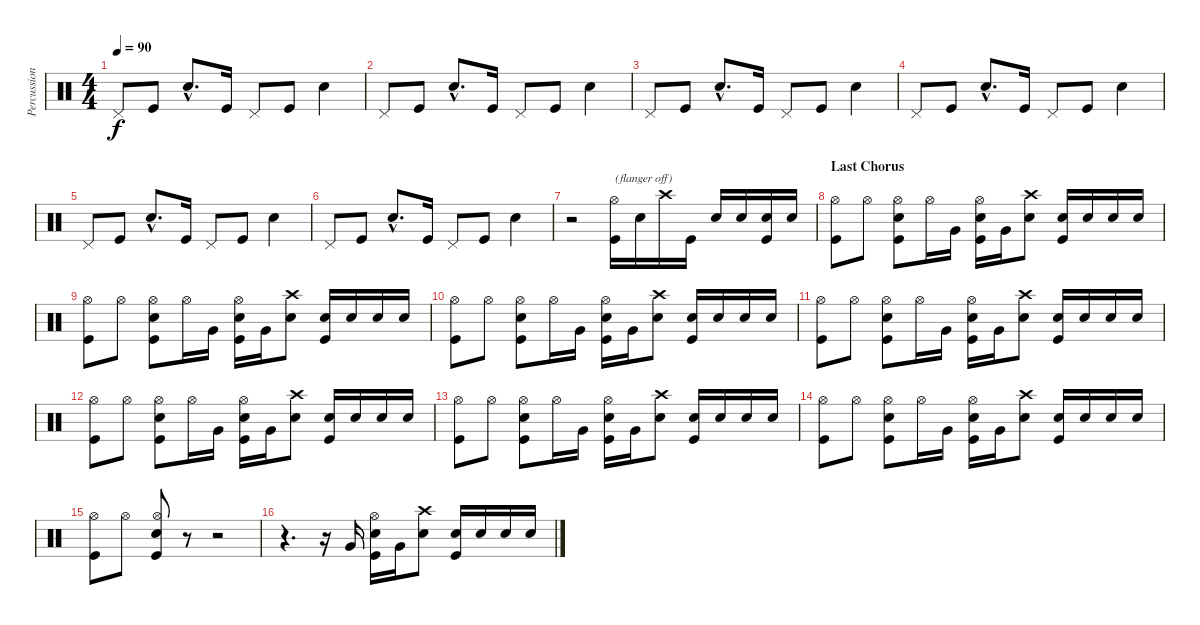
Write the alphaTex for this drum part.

\track ("Percussion" "Percussion") {instrument percussion}
\staff {score}
\articulation defaults
\ts (4 4)
\tempo 90
\clef neutral
\ks c "Pedal Hi-Hat (hit)".8{dy f} "Kick (hit)".8 "Electric Snare (hit)"{hac}.8{d} "Kick (hit)".16 "Pedal Hi-Hat (hit)".8 "Kick (hit)".8 "Electric Snare (hit)".4
|
"Pedal Hi-Hat (hit)".8 "Kick (hit)".8 "Electric Snare (hit)"{hac}.8{d} "Kick (hit)".16 "Pedal Hi-Hat (hit)".8 "Kick (hit)".8 "Electric Snare (hit)".4 |
"Pedal Hi-Hat (hit)".8 "Kick (hit)".8 "Electric Snare (hit)"{hac}.8{d} "Kick (hit)".16 "Pedal Hi-Hat (hit)".8 "Kick (hit)".8 "Electric Snare (hit)".4 |
"Pedal Hi-Hat (hit)".8 "Kick (hit)".8 "Electric Snare (hit)"{hac}.8{d} "Kick (hit)".16 "Pedal Hi-Hat (hit)".8 "Kick (hit)".8 "Electric Snare (hit)".4 |
"Pedal Hi-Hat (hit)".8 "Kick (hit)".8 "Electric Snare (hit)"{hac}.8{d} "Kick (hit)".16 "Pedal Hi-Hat (hit)".8 "Kick (hit)".8 "Electric Snare (hit)".4 |
"Pedal Hi-Hat (hit)".8 "Kick (hit)".8 "Electric Snare (hit)"{hac}.8{d} "Kick (hit)".16 "Pedal Hi-Hat (hit)".8 "Kick (hit)".8 "Electric Snare (hit)".4 |
r.2 ("Hi-Hat (open)" "Kick (hit)").16{txt "(flanger off)"} "Snare (hit) 2".16 "Crash high (hit)".16 "Kick (hit)".16 "Snare (hit) 2".16 "Snare (hit) 2".16 ("Snare (hit) 2" "Kick (hit)").16 "Snare (hit) 2".16 |
\section ("" "Last Chorus")
("Hi-Hat (open)" "Kick (hit)").8 "Hi-Hat (open)".8 ("Hi-Hat (open)" "Snare (hit) 2" "Kick (hit)").8 "Hi-Hat (open)".16 "Very Low Tom (hit)".16 ("Hi-Hat (open)" "Snare (hit) 2" "Kick (hit)").16 "Very Low Tom (hit)".16 ("Crash high (hit)" "Snare (hit) 2").8 ("Snare (hit) 2" "Kick (hit)").16 "Snare (hit) 2".16 "Snare (hit) 2".16 "Snare (hit) 2".16 |
("Hi-Hat (open)" "Kick (hit)").8 "Hi-Hat (open)".8 ("Hi-Hat (open)" "Snare (hit) 2" "Kick (hit)").8 "Hi-Hat (open)".16 "Very Low Tom (hit)".16 ("Hi-Hat (open)" "Snare (hit) 2" "Kick (hit)").16 "Very Low Tom (hit)".16 ("Crash high (hit)" "Snare (hit) 2").8 ("Snare (hit) 2" "Kick (hit)").16 "Snare (hit) 2".16 "Snare (hit) 2".16 "Snare (hit) 2".16 |
("Hi-Hat (open)" "Kick (hit)").8 "Hi-Hat (open)".8 ("Hi-Hat (open)" "Snare (hit) 2" "Kick (hit)").8 "Hi-Hat (open)".16 "Very Low Tom (hit)".16 ("Hi-Hat (open)" "Snare (hit) 2" "Kick (hit)").16 "Very Low Tom (hit)".16 ("Crash high (hit)" "Snare (hit) 2").8 ("Snare (hit) 2" "Kick (hit)").16 "Snare (hit) 2".16 "Snare (hit) 2".16 "Snare (hit) 2".16 |
("Hi-Hat (open)" "Kick (hit)").8 "Hi-Hat (open)".8 ("Hi-Hat (open)" "Snare (hit) 2" "Kick (hit)").8 "Hi-Hat (open)".16 "Very Low Tom (hit)".16 ("Hi-Hat (open)" "Snare (hit) 2" "Kick (hit)").16 "Very Low Tom (hit)".16 ("Crash high (hit)" "Snare (hit) 2").8 ("Snare (hit) 2" "Kick (hit)").16 "Snare (hit) 2".16 "Snare (hit) 2".16 "Snare (hit) 2".16 |
("Hi-Hat (open)" "Kick (hit)").8 "Hi-Hat (open)".8 ("Hi-Hat (open)" "Snare (hit) 2" "Kick (hit)").8 "Hi-Hat (open)".16 "Very Low Tom (hit)".16 ("Hi-Hat (open)" "Snare (hit) 2" "Kick (hit)").16 "Very Low Tom (hit)".16 ("Crash high (hit)" "Snare (hit) 2").8 ("Snare (hit) 2" "Kick (hit)").16 "Snare (hit) 2".16 "Snare (hit) 2".16 "Snare (hit) 2".16 |
("Hi-Hat (open)" "Kick (hit)").8 "Hi-Hat (open)".8 ("Hi-Hat (open)" "Snare (hit) 2" "Kick (hit)").8 "Hi-Hat (open)".16 "Very Low Tom (hit)".16 ("Hi-Hat (open)" "Snare (hit) 2" "Kick (hit)").16 "Very Low Tom (hit)".16 ("Crash high (hit)" "Snare (hit) 2").8 ("Snare (hit) 2" "Kick (hit)").16 "Snare (hit) 2".16 "Snare (hit) 2".16 "Snare (hit) 2".16 |
("Hi-Hat (open)" "Kick (hit)").8 "Hi-Hat (open)".8 ("Hi-Hat (open)" "Snare (hit) 2" "Kick (hit)").8 "Hi-Hat (open)".16 "Very Low Tom (hit)".16 ("Hi-Hat (open)" "Snare (hit) 2" "Kick (hit)").16 "Very Low Tom (hit)".16 ("Crash high (hit)" "Snare (hit) 2").8 ("Snare (hit) 2" "Kick (hit)").16 "Snare (hit) 2".16 "Snare (hit) 2".16 "Snare (hit) 2".16 |
("Hi-Hat (open)" "Kick (hit)").8 "Hi-Hat (open)".8 ("Hi-Hat (open)" "Snare (hit) 2" "Kick (hit)").8 r.8 r.2 |
r.4{d} r.16 "Very Low Tom (hit)".16 ("Hi-Hat (open)" "Snare (hit) 2" "Kick (hit)").16 "Very Low Tom (hit)".16 ("Crash high (hit)" "Snare (hit) 2").8 ("Snare (hit) 2" "Kick (hit)").16 "Snare (hit) 2".16 "Snare (hit) 2".16 "Snare (hit) 2".16
